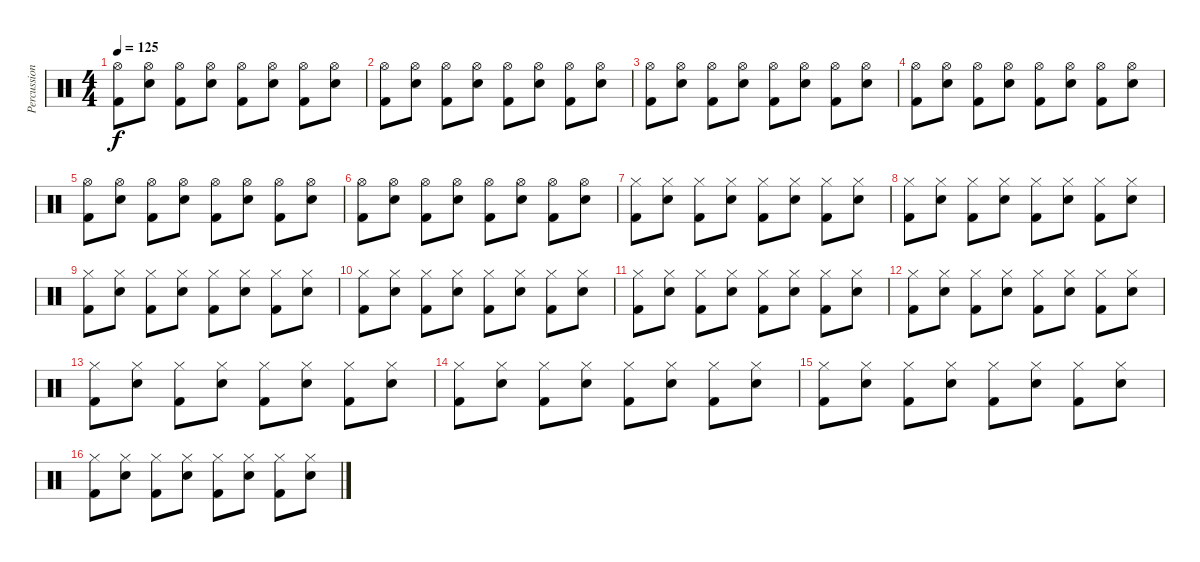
\track ("Percussion" "Percussion") {instrument percussion}
\staff {score}
\articulation defaults
\ts (4 4)
\tempo 125
\clef neutral
\ks c
("Hi-Hat (open)" "Kick (hit) 2").8{dy f} ("Snare (hit) 2" "Hi-Hat (open)").8 ("Hi-Hat (open)" "Kick (hit) 2").8 ("Snare (hit) 2" "Hi-Hat (open)").8 ("Hi-Hat (open)" "Kick (hit) 2").8 ("Snare (hit) 2" "Hi-Hat (open)").8 ("Hi-Hat (open)" "Kick (hit) 2").8 ("Snare (hit) 2" "Hi-Hat (open)").8 |
("Hi-Hat (open)" "Kick (hit) 2").8 ("Snare (hit) 2" "Hi-Hat (open)").8 ("Hi-Hat (open)" "Kick (hit) 2").8 ("Snare (hit) 2" "Hi-Hat (open)").8 ("Hi-Hat (open)" "Kick (hit) 2").8 ("Snare (hit) 2" "Hi-Hat (open)").8 ("Hi-Hat (open)" "Kick (hit) 2").8 ("Snare (hit) 2" "Hi-Hat (open)").8 |
("Hi-Hat (open)" "Kick (hit) 2").8 ("Snare (hit) 2" "Hi-Hat (open)").8 ("Hi-Hat (open)" "Kick (hit) 2").8 ("Snare (hit) 2" "Hi-Hat (open)").8 ("Hi-Hat (open)" "Kick (hit) 2").8 ("Snare (hit) 2" "Hi-Hat (open)").8 ("Hi-Hat (open)" "Kick (hit) 2").8 ("Snare (hit) 2" "Hi-Hat (open)").8 |
("Hi-Hat (open)" "Kick (hit) 2").8 ("Snare (hit) 2" "Hi-Hat (open)").8 ("Hi-Hat (open)" "Kick (hit) 2").8 ("Snare (hit) 2" "Hi-Hat (open)").8 ("Hi-Hat (open)" "Kick (hit) 2").8 ("Snare (hit) 2" "Hi-Hat (open)").8 ("Hi-Hat (open)" "Kick (hit) 2").8 ("Snare (hit) 2" "Hi-Hat (open)").8 |
("Hi-Hat (open)" "Kick (hit) 2").8 ("Snare (hit) 2" "Hi-Hat (open)").8 ("Hi-Hat (open)" "Kick (hit) 2").8 ("Snare (hit) 2" "Hi-Hat (open)").8 ("Hi-Hat (open)" "Kick (hit) 2").8 ("Snare (hit) 2" "Hi-Hat (open)").8 ("Hi-Hat (open)" "Kick (hit) 2").8 ("Snare (hit) 2" "Hi-Hat (open)").8 |
("Hi-Hat (open)" "Kick (hit) 2").8 ("Snare (hit) 2" "Hi-Hat (open)").8 ("Hi-Hat (open)" "Kick (hit) 2").8 ("Snare (hit) 2" "Hi-Hat (open)").8 ("Hi-Hat (open)" "Kick (hit) 2").8 ("Snare (hit) 2" "Hi-Hat (open)").8 ("Hi-Hat (open)" "Kick (hit) 2").8 ("Snare (hit) 2" "Hi-Hat (open)").8 |
("Hi-Hat (closed)" "Kick (hit) 2").8 ("Snare (hit) 2" "Hi-Hat (closed)").8 ("Hi-Hat (closed)" "Kick (hit) 2").8 ("Snare (hit) 2" "Hi-Hat (closed)").8 ("Hi-Hat (closed)" "Kick (hit) 2").8 ("Snare (hit) 2" "Hi-Hat (closed)").8 ("Hi-Hat (closed)" "Kick (hit) 2").8 ("Snare (hit) 2" "Hi-Hat (closed)").8 |
("Hi-Hat (closed)" "Kick (hit) 2").8 ("Snare (hit) 2" "Hi-Hat (closed)").8 ("Hi-Hat (closed)" "Kick (hit) 2").8 ("Snare (hit) 2" "Hi-Hat (closed)").8 ("Hi-Hat (closed)" "Kick (hit) 2").8 ("Snare (hit) 2" "Hi-Hat (closed)").8 ("Hi-Hat (closed)" "Kick (hit) 2").8 ("Snare (hit) 2" "Hi-Hat (closed)").8 |
("Hi-Hat (closed)" "Kick (hit) 2").8 ("Snare (hit) 2" "Hi-Hat (closed)").8 ("Hi-Hat (closed)" "Kick (hit) 2").8 ("Snare (hit) 2" "Hi-Hat (closed)").8 ("Hi-Hat (closed)" "Kick (hit) 2").8 ("Snare (hit) 2" "Hi-Hat (closed)").8 ("Hi-Hat (closed)" "Kick (hit) 2").8 ("Snare (hit) 2" "Hi-Hat (closed)").8 |
("Hi-Hat (closed)" "Kick (hit) 2").8 ("Snare (hit) 2" "Hi-Hat (closed)").8 ("Hi-Hat (closed)" "Kick (hit) 2").8 ("Snare (hit) 2" "Hi-Hat (closed)").8 ("Hi-Hat (closed)" "Kick (hit) 2").8 ("Snare (hit) 2" "Hi-Hat (closed)").8 ("Hi-Hat (closed)" "Kick (hit) 2").8 ("Snare (hit) 2" "Hi-Hat (closed)").8 |
("Hi-Hat (closed)" "Kick (hit) 2").8 ("Snare (hit) 2" "Hi-Hat (closed)").8 ("Hi-Hat (closed)" "Kick (hit) 2").8 ("Snare (hit) 2" "Hi-Hat (closed)").8 ("Hi-Hat (closed)" "Kick (hit) 2").8 ("Snare (hit) 2" "Hi-Hat (closed)").8 ("Hi-Hat (closed)" "Kick (hit) 2").8 ("Snare (hit) 2" "Hi-Hat (closed)").8 |
("Hi-Hat (closed)" "Kick (hit) 2").8 ("Snare (hit) 2" "Hi-Hat (closed)").8 ("Hi-Hat (closed)" "Kick (hit) 2").8 ("Snare (hit) 2" "Hi-Hat (closed)").8 ("Hi-Hat (closed)" "Kick (hit) 2").8 ("Snare (hit) 2" "Hi-Hat (closed)").8 ("Hi-Hat (closed)" "Kick (hit) 2").8 ("Snare (hit) 2" "Hi-Hat (closed)").8 |
("Hi-Hat (closed)" "Kick (hit) 2").8 ("Snare (hit) 2" "Hi-Hat (closed)").8 ("Hi-Hat (closed)" "Kick (hit) 2").8 ("Snare (hit) 2" "Hi-Hat (closed)").8 ("Hi-Hat (closed)" "Kick (hit) 2").8 ("Snare (hit) 2" "Hi-Hat (closed)").8 ("Hi-Hat (closed)" "Kick (hit) 2").8 ("Snare (hit) 2" "Hi-Hat (closed)").8 |
("Hi-Hat (closed)" "Kick (hit) 2").8 ("Snare (hit) 2" "Hi-Hat (closed)").8 ("Hi-Hat (closed)" "Kick (hit) 2").8 ("Snare (hit) 2" "Hi-Hat (closed)").8 ("Hi-Hat (closed)" "Kick (hit) 2").8 ("Snare (hit) 2" "Hi-Hat (closed)").8 ("Hi-Hat (closed)" "Kick (hit) 2").8 ("Snare (hit) 2" "Hi-Hat (closed)").8 |
("Hi-Hat (closed)" "Kick (hit) 2").8 ("Snare (hit) 2" "Hi-Hat (closed)").8 ("Hi-Hat (closed)" "Kick (hit) 2").8 ("Snare (hit) 2" "Hi-Hat (closed)").8 ("Hi-Hat (closed)" "Kick (hit) 2").8 ("Snare (hit) 2" "Hi-Hat (closed)").8 ("Hi-Hat (closed)" "Kick (hit) 2").8 ("Snare (hit) 2" "Hi-Hat (closed)").8 |
("Hi-Hat (closed)" "Kick (hit) 2").8 ("Snare (hit) 2" "Hi-Hat (closed)").8 ("Hi-Hat (closed)" "Kick (hit) 2").8 ("Snare (hit) 2" "Hi-Hat (closed)").8 ("Hi-Hat (closed)" "Kick (hit) 2").8 ("Snare (hit) 2" "Hi-Hat (closed)").8 ("Hi-Hat (closed)" "Kick (hit) 2").8 ("Snare (hit) 2" "Hi-Hat (closed)").8
